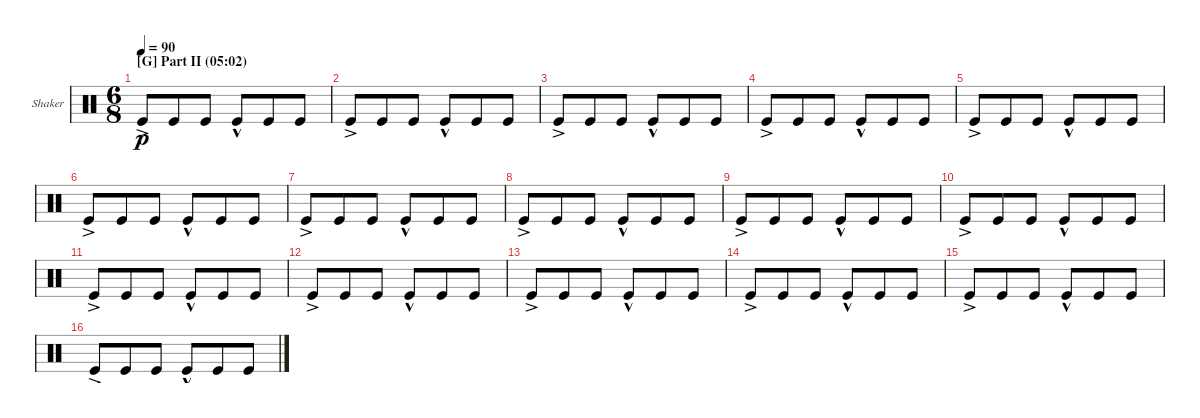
\defaultSystemsLayout 4
\bracketExtendMode groupsimilarinstruments
\firstSystemTrackNameOrientation horizontal
\otherSystemsTrackNameOrientation horizontal
\track ("Shaker" "Shaker") {multiBarRest instrument percussion}
\staff {score}
\articulation defaults
\ts (6 8)
\section ("G" "Part II (05:02)")
\tempo 90
\clef neutral
\ks c "Kick (hit)"{ac}.8{dy p} "Kick (hit)".8 "Kick (hit)".8 "Kick (hit)"{hac}.8 "Kick (hit)".8 "Kick (hit)".8
|
"Kick (hit)"{ac}.8 "Kick (hit)".8 "Kick (hit)".8 "Kick (hit)"{hac}.8 "Kick (hit)".8 "Kick (hit)".8 |
"Kick (hit)"{ac}.8 "Kick (hit)".8 "Kick (hit)".8 "Kick (hit)"{hac}.8 "Kick (hit)".8 "Kick (hit)".8 |
"Kick (hit)"{ac}.8 "Kick (hit)".8 "Kick (hit)".8 "Kick (hit)"{hac}.8 "Kick (hit)".8 "Kick (hit)".8 |
"Kick (hit)"{ac}.8 "Kick (hit)".8 "Kick (hit)".8 "Kick (hit)"{hac}.8 "Kick (hit)".8 "Kick (hit)".8 |
"Kick (hit)"{ac}.8 "Kick (hit)".8 "Kick (hit)".8 "Kick (hit)"{hac}.8 "Kick (hit)".8 "Kick (hit)".8 |
"Kick (hit)"{ac}.8 "Kick (hit)".8 "Kick (hit)".8 "Kick (hit)"{hac}.8 "Kick (hit)".8 "Kick (hit)".8 |
"Kick (hit)"{ac}.8 "Kick (hit)".8 "Kick (hit)".8 "Kick (hit)"{hac}.8 "Kick (hit)".8 "Kick (hit)".8 |
"Kick (hit)"{ac}.8 "Kick (hit)".8 "Kick (hit)".8 "Kick (hit)"{hac}.8 "Kick (hit)".8 "Kick (hit)".8 |
"Kick (hit)"{ac}.8 "Kick (hit)".8 "Kick (hit)".8 "Kick (hit)"{hac}.8 "Kick (hit)".8 "Kick (hit)".8 |
"Kick (hit)"{ac}.8 "Kick (hit)".8 "Kick (hit)".8 "Kick (hit)"{hac}.8 "Kick (hit)".8 "Kick (hit)".8 |
"Kick (hit)"{ac}.8 "Kick (hit)".8 "Kick (hit)".8 "Kick (hit)"{hac}.8 "Kick (hit)".8 "Kick (hit)".8 |
"Kick (hit)"{ac}.8 "Kick (hit)".8 "Kick (hit)".8 "Kick (hit)"{hac}.8 "Kick (hit)".8 "Kick (hit)".8 |
"Kick (hit)"{ac}.8 "Kick (hit)".8 "Kick (hit)".8 "Kick (hit)"{hac}.8 "Kick (hit)".8 "Kick (hit)".8 |
"Kick (hit)"{ac}.8 "Kick (hit)".8 "Kick (hit)".8 "Kick (hit)"{hac}.8 "Kick (hit)".8 "Kick (hit)".8 |
"Kick (hit)"{ac}.8 "Kick (hit)".8 "Kick (hit)".8 "Kick (hit)"{hac}.8 "Kick (hit)".8 "Kick (hit)".8
